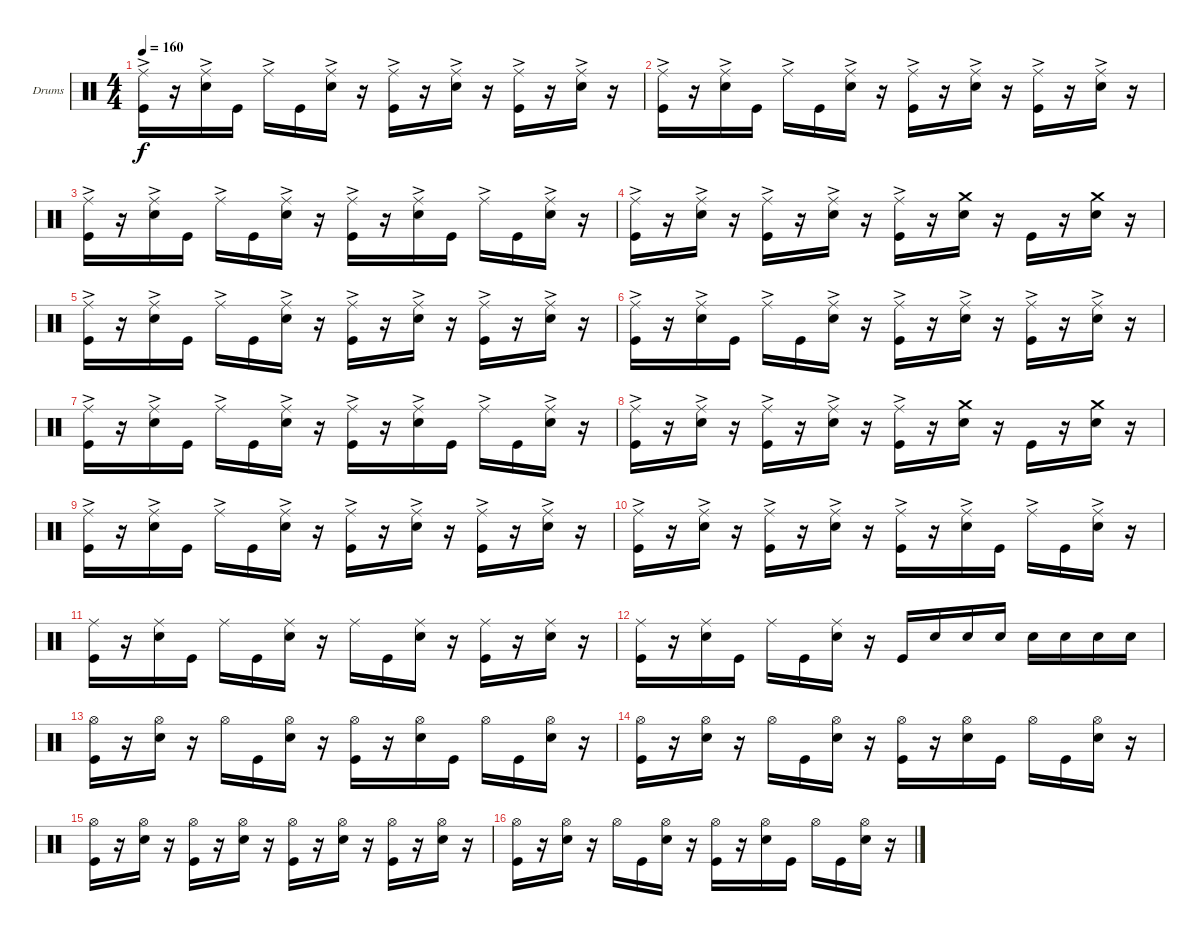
\defaultSystemsLayout 4
\bracketExtendMode groupsimilarinstruments
\firstSystemTrackNameOrientation horizontal
\otherSystemsTrackNameOrientation horizontal
\track ("Drumkit" "Drums") {instrument percussion}
\staff {score}
\articulation defaults
\ts (4 4)
\tempo 160
\clef neutral
\ks c
("Ride (middle)"{ac} "Kick (hit)").16{dy f} r.16 ("Ride (middle)"{ac} "Snare (hit) 2").16 "Kick (hit)".16 "Ride (middle)"{ac}.16 "Kick (hit)".16 ("Ride (middle)"{ac} "Snare (hit) 2").16 r.16 ("Ride (middle)"{ac} "Kick (hit)").16 r.16 ("Ride (middle)"{ac} "Snare (hit) 2").16 r.16 ("Ride (middle)"{ac} "Kick (hit)").16 r.16 ("Ride (middle)"{ac} "Snare (hit) 2").16 r.16 |
("Ride (middle)"{ac} "Kick (hit)").16 r.16 ("Ride (middle)"{ac} "Snare (hit) 2").16 "Kick (hit)".16 "Ride (middle)"{ac}.16 "Kick (hit)".16 ("Ride (middle)"{ac} "Snare (hit) 2").16 r.16 ("Ride (middle)"{ac} "Kick (hit)").16 r.16 ("Ride (middle)"{ac} "Snare (hit) 2").16 r.16 ("Ride (middle)"{ac} "Kick (hit)").16 r.16 ("Ride (middle)"{ac} "Snare (hit) 2").16 r.16 |
("Ride (middle)"{ac} "Kick (hit)").16 r.16 ("Ride (middle)"{ac} "Snare (hit) 2").16 "Kick (hit)".16 "Ride (middle)"{ac}.16 "Kick (hit)".16 ("Ride (middle)"{ac} "Snare (hit) 2").16 r.16 ("Ride (middle)"{ac} "Kick (hit)").16 r.16 ("Ride (middle)"{ac} "Snare (hit) 2").16 "Kick (hit)".16 "Ride (middle)"{ac}.16 "Kick (hit)".16 ("Ride (middle)"{ac} "Snare (hit) 2").16 r.16 |
("Ride (middle)"{ac} "Kick (hit)").16 r.16 ("Ride (middle)"{ac} "Snare (hit) 2").16 r.16 ("Ride (middle)"{ac} "Kick (hit)").16 r.16 ("Ride (middle)"{ac} "Snare (hit) 2").16 r.16 ("Ride (middle)"{ac} "Kick (hit)").16 r.16 ("Crash medium (hit)" "Snare (hit) 2").16 r.16 "Kick (hit)".16 r.16 ("Crash medium (hit)" "Snare (hit) 2").16 r.16 |
("Ride (middle)"{ac} "Kick (hit)").16 r.16 ("Ride (middle)"{ac} "Snare (hit) 2").16 "Kick (hit)".16 "Ride (middle)"{ac}.16 "Kick (hit)".16 ("Ride (middle)"{ac} "Snare (hit) 2").16 r.16 ("Ride (middle)"{ac} "Kick (hit)").16 r.16 ("Ride (middle)"{ac} "Snare (hit) 2").16 r.16 ("Ride (middle)"{ac} "Kick (hit)").16 r.16 ("Ride (middle)"{ac} "Snare (hit) 2").16 r.16 |
("Ride (middle)"{ac} "Kick (hit)").16 r.16 ("Ride (middle)"{ac} "Snare (hit) 2").16 "Kick (hit)".16 "Ride (middle)"{ac}.16 "Kick (hit)".16 ("Ride (middle)"{ac} "Snare (hit) 2").16 r.16 ("Ride (middle)"{ac} "Kick (hit)").16 r.16 ("Ride (middle)"{ac} "Snare (hit) 2").16 r.16 ("Ride (middle)"{ac} "Kick (hit)").16 r.16 ("Ride (middle)"{ac} "Snare (hit) 2").16 r.16 |
("Ride (middle)"{ac} "Kick (hit)").16 r.16 ("Ride (middle)"{ac} "Snare (hit) 2").16 "Kick (hit)".16 "Ride (middle)"{ac}.16 "Kick (hit)".16 ("Ride (middle)"{ac} "Snare (hit) 2").16 r.16 ("Ride (middle)"{ac} "Kick (hit)").16 r.16 ("Ride (middle)"{ac} "Snare (hit) 2").16 "Kick (hit)".16 "Ride (middle)"{ac}.16 "Kick (hit)".16 ("Ride (middle)"{ac} "Snare (hit) 2").16 r.16 |
("Ride (middle)"{ac} "Kick (hit)").16 r.16 ("Ride (middle)"{ac} "Snare (hit) 2").16 r.16 ("Ride (middle)"{ac} "Kick (hit)").16 r.16 ("Ride (middle)"{ac} "Snare (hit) 2").16 r.16 ("Ride (middle)"{ac} "Kick (hit)").16 r.16 ("Crash medium (hit)" "Snare (hit) 2").16 r.16 "Kick (hit)".16 r.16 ("Crash medium (hit)" "Snare (hit) 2").16 r.16 |
("Ride (middle)"{ac} "Kick (hit)").16 r.16 ("Ride (middle)"{ac} "Snare (hit) 2").16 "Kick (hit)".16 "Ride (middle)"{ac}.16 "Kick (hit)".16 ("Ride (middle)"{ac} "Snare (hit) 2").16 r.16 ("Ride (middle)"{ac} "Kick (hit)").16 r.16 ("Ride (middle)"{ac} "Snare (hit) 2").16 r.16 ("Ride (middle)"{ac} "Kick (hit)").16 r.16 ("Ride (middle)"{ac} "Snare (hit) 2").16 r.16 |
("Ride (middle)"{ac} "Kick (hit)").16 r.16 ("Ride (middle)"{ac} "Snare (hit) 2").16 r.16 ("Ride (middle)"{ac} "Kick (hit)").16 r.16 ("Ride (middle)"{ac} "Snare (hit) 2").16 r.16 ("Ride (middle)"{ac} "Kick (hit)").16 r.16 ("Ride (middle)"{ac} "Snare (hit) 2").16 "Kick (hit)".16 "Ride (middle)"{ac}.16 "Kick (hit)".16 ("Ride (middle)"{ac} "Snare (hit) 2").16 r.16 |
("Ride (middle)" "Kick (hit)").16 r.16 ("Ride (middle)" "Snare (hit) 2").16 "Kick (hit)".16 "Ride (middle)".16 "Kick (hit)".16 ("Ride (middle)" "Snare (hit) 2").16 r.16 "Ride (middle)".16 "Kick (hit)".16 ("Ride (middle)" "Snare (hit) 2").16 r.16 ("Ride (middle)" "Kick (hit)").16 r.16 ("Ride (middle)" "Snare (hit) 2").16 r.16 |
("Ride (middle)" "Kick (hit)").16 r.16 ("Ride (middle)" "Snare (hit) 2").16 "Kick (hit)".16 "Ride (middle)".16 "Kick (hit)".16 ("Ride (middle)" "Snare (hit) 2").16 r.16 "Kick (hit)".16 "Snare (hit) 2".16 "Snare (hit) 2".16 "Snare (hit) 2".16 "Snare (hit) 2".16 "Snare (hit) 2".16 "Snare (hit) 2".16 "Snare (hit) 2".16 |
("Hi-Hat (open)" "Kick (hit)").16 r.16 ("Hi-Hat (open)" "Snare (hit) 2").16 r.16 "Hi-Hat (open)".16 "Kick (hit)".16 ("Hi-Hat (open)" "Snare (hit) 2").16 r.16 ("Hi-Hat (open)" "Kick (hit)").16 r.16 ("Hi-Hat (open)" "Snare (hit) 2").16 "Kick (hit)".16 "Hi-Hat (open)".16 "Kick (hit)".16 ("Hi-Hat (open)" "Snare (hit) 2").16 r.16 |
("Hi-Hat (open)" "Kick (hit)").16 r.16 ("Hi-Hat (open)" "Snare (hit) 2").16 r.16 "Hi-Hat (open)".16 "Kick (hit)".16 ("Hi-Hat (open)" "Snare (hit) 2").16 r.16 ("Hi-Hat (open)" "Kick (hit)").16 r.16 ("Hi-Hat (open)" "Snare (hit) 2").16 "Kick (hit)".16 "Hi-Hat (open)".16 "Kick (hit)".16 ("Hi-Hat (open)" "Snare (hit) 2").16 r.16 |
("Hi-Hat (open)" "Kick (hit)").16 r.16 ("Hi-Hat (open)" "Snare (hit) 2").16 r.16 ("Hi-Hat (open)" "Kick (hit)").16 r.16 ("Hi-Hat (open)" "Snare (hit) 2").16 r.16 ("Hi-Hat (open)" "Kick (hit)").16 r.16 ("Hi-Hat (open)" "Snare (hit) 2").16 r.16 ("Hi-Hat (open)" "Kick (hit)").16 r.16 ("Hi-Hat (open)" "Snare (hit) 2").16 r.16 |
("Hi-Hat (open)" "Kick (hit)").16 r.16 ("Hi-Hat (open)" "Snare (hit) 2").16 r.16 "Hi-Hat (open)".16 "Kick (hit)".16 ("Hi-Hat (open)" "Snare (hit) 2").16 r.16 ("Hi-Hat (open)" "Kick (hit)").16 r.16 ("Hi-Hat (open)" "Snare (hit) 2").16 "Kick (hit)".16 "Hi-Hat (open)".16 "Kick (hit)".16 ("Hi-Hat (open)" "Snare (hit) 2").16 r.16
